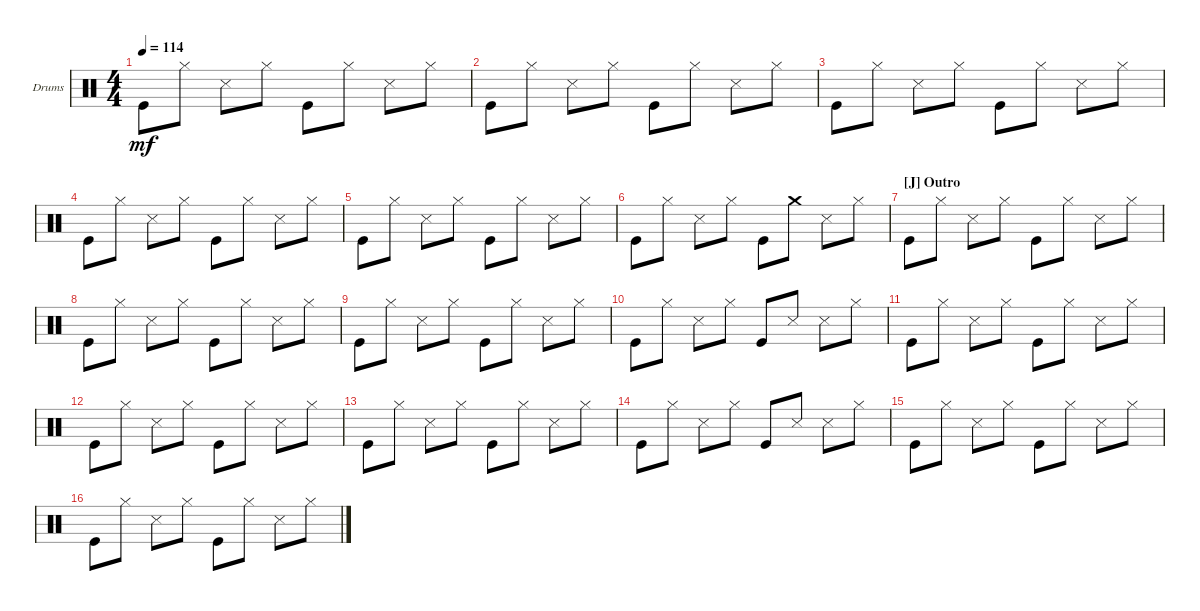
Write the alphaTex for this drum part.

\defaultSystemsLayout 4
\bracketExtendMode groupsimilarinstruments
\firstSystemTrackNameOrientation horizontal
\otherSystemsTrackNameOrientation horizontal
\track ("Drumkit" "Drums") {instrument percussion}
\staff {score}
\articulation defaults
\ts (4 4)
\tempo 114
\clef neutral
\ks c "Kick (hit)".8{dy mf} "Hi-Hat (closed)".8 "Snare (side stick) 3".8 "Hi-Hat (closed)".8 "Kick (hit)".8 "Hi-Hat (closed)".8 "Snare (side stick) 3".8 "Hi-Hat (closed)".8
|
"Kick (hit)".8 "Hi-Hat (closed)".8 "Snare (side stick) 3".8 "Hi-Hat (closed)".8 "Kick (hit)".8 "Hi-Hat (closed)".8 "Snare (side stick) 3".8 "Hi-Hat (closed)".8 |
"Kick (hit)".8 "Hi-Hat (closed)".8 "Snare (side stick) 3".8 "Hi-Hat (closed)".8 "Kick (hit)".8 "Hi-Hat (closed)".8 "Snare (side stick) 3".8 "Hi-Hat (closed)".8 |
"Kick (hit)".8 "Hi-Hat (closed)".8 "Snare (side stick) 3".8 "Hi-Hat (closed)".8 "Kick (hit)".8 "Hi-Hat (closed)".8 "Snare (side stick) 3".8 "Hi-Hat (closed)".8 |
"Kick (hit)".8 "Hi-Hat (closed)".8 "Snare (side stick) 3".8 "Hi-Hat (closed)".8 "Kick (hit)".8 "Hi-Hat (closed)".8 "Snare (side stick) 3".8 "Hi-Hat (closed)".8 |
"Kick (hit)".8 "Hi-Hat (closed)".8 "Snare (side stick) 3".8 "Hi-Hat (closed)".8 "Kick (hit)".8 "Crash medium (hit)".8 "Snare (side stick) 3".8 "Hi-Hat (closed)".8 |
\section ("J" "Outro")
"Kick (hit)".8 "Hi-Hat (closed)".8 "Snare (side stick) 3".8 "Hi-Hat (closed)".8 "Kick (hit)".8 "Hi-Hat (closed)".8 "Snare (side stick) 3".8 "Hi-Hat (closed)".8 |
"Kick (hit)".8 "Hi-Hat (closed)".8 "Snare (side stick) 3".8 "Hi-Hat (closed)".8 "Kick (hit)".8 "Hi-Hat (closed)".8 "Snare (side stick) 3".8 "Hi-Hat (closed)".8 |
"Kick (hit)".8 "Hi-Hat (closed)".8 "Snare (side stick) 3".8 "Hi-Hat (closed)".8 "Kick (hit)".8 "Hi-Hat (closed)".8 "Snare (side stick) 3".8 "Hi-Hat (closed)".8 |
"Kick (hit)".8 "Hi-Hat (closed)".8 "Snare (side stick) 3".8 "Hi-Hat (closed)".8 "Kick (hit)".8 "Snare (side stick) 3".8 "Snare (side stick) 3".8 "Hi-Hat (closed)".8 |
"Kick (hit)".8 "Hi-Hat (closed)".8 "Snare (side stick) 3".8 "Hi-Hat (closed)".8 "Kick (hit)".8 "Hi-Hat (closed)".8 "Snare (side stick) 3".8 "Hi-Hat (closed)".8 |
"Kick (hit)".8 "Hi-Hat (closed)".8 "Snare (side stick) 3".8 "Hi-Hat (closed)".8 "Kick (hit)".8 "Hi-Hat (closed)".8 "Snare (side stick) 3".8 "Hi-Hat (closed)".8 |
"Kick (hit)".8 "Hi-Hat (closed)".8 "Snare (side stick) 3".8 "Hi-Hat (closed)".8 "Kick (hit)".8 "Hi-Hat (closed)".8 "Snare (side stick) 3".8 "Hi-Hat (closed)".8 |
"Kick (hit)".8 "Hi-Hat (closed)".8 "Snare (side stick) 3".8 "Hi-Hat (closed)".8 "Kick (hit)".8 "Snare (side stick) 3".8 "Snare (side stick) 3".8 "Hi-Hat (closed)".8 |
"Kick (hit)".8 "Hi-Hat (closed)".8 "Snare (side stick) 3".8 "Hi-Hat (closed)".8 "Kick (hit)".8 "Hi-Hat (closed)".8 "Snare (side stick) 3".8 "Hi-Hat (closed)".8 |
"Kick (hit)".8 "Hi-Hat (closed)".8 "Snare (side stick) 3".8 "Hi-Hat (closed)".8 "Kick (hit)".8 "Hi-Hat (closed)".8 "Snare (side stick) 3".8 "Hi-Hat (closed)".8
